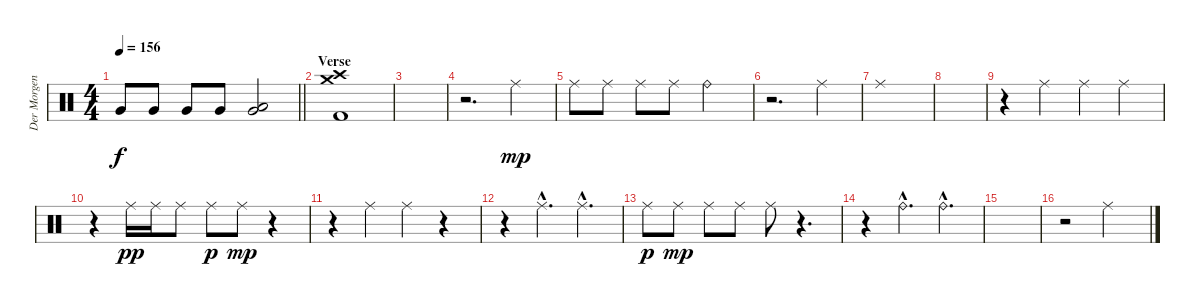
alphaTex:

\track ("Der Morgenstern" "Der Morgen") {instrument percussion}
\staff {score}
\articulation defaults
\ts (4 4)
\tempo 156
\clef neutral
\barLineRight lightlight
\ks c "Very Low Tom (hit)".8{dy f} "Very Low Tom (hit)".8 "Very Low Tom (hit)".8 "Very Low Tom (hit)".8
("Low Tom (hit)" "Very Low Tom (hit)").2 |
\section ("" "Verse")
("Crash high (hit)" "Crash medium (hit)" "Kick (hit) 2").1 |
|
r.2{d} "Ride (middle)".4{dy mp} |
"Ride (middle)".8 "Ride (middle)".8 "Ride (middle)".8 "Ride (middle)".8 "Ride (bell)".2 |
r.2{d} "Ride (middle)".4 |
"Ride (middle)".1 |
|
r.4 "Ride (middle)".4 "Ride (middle)".4 "Ride (middle)".4 |
r.4 "Ride (middle)".16{dy pp} "Ride (middle)".16 "Ride (middle)".8 "Ride (middle)".8{dy p} "Ride (middle)".8{dy mp} r.4 |
r.4 "Ride (middle)".4 "Ride (middle)".4 r.4 |
r.4 "Ride (middle)"{hac}.4{d} "Ride (middle)"{hac}.4{d} |
"Ride (middle)".8{dy p} "Ride (middle)".8{dy mp} "Ride (middle)".8 "Ride (middle)".8 "Ride (middle)".8 r.4{d} |
r.4 "Ride (bell)"{hac}.4{d} "Ride (bell)"{hac}.4{d} |
|
r.2 "Ride (middle)".2
